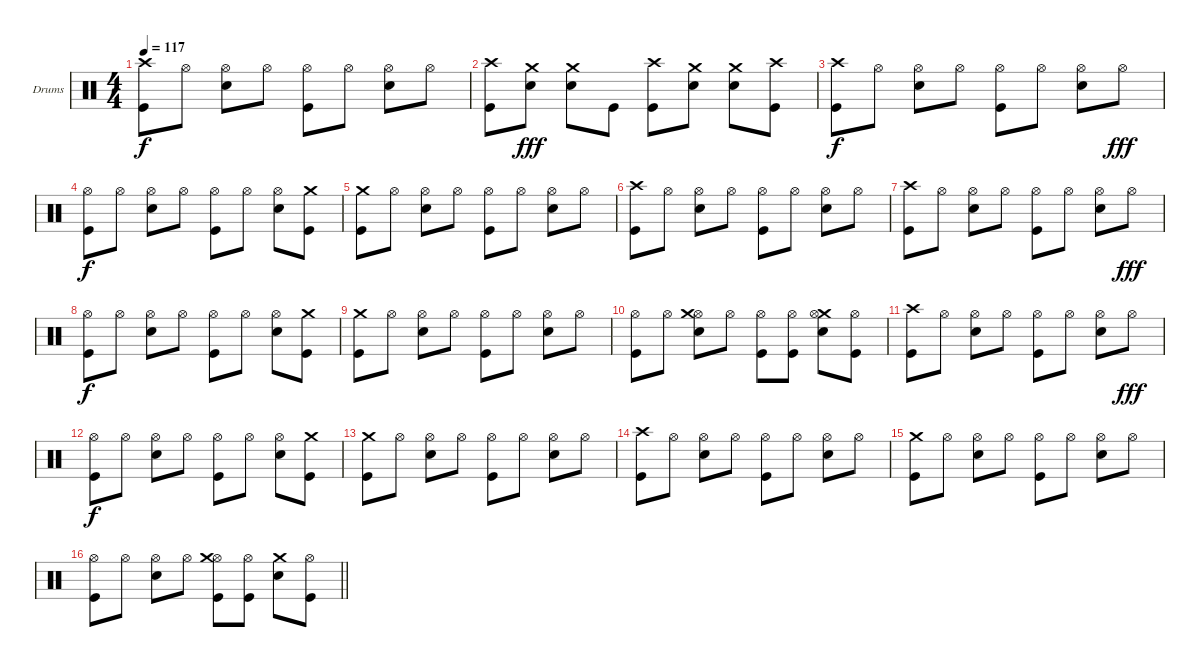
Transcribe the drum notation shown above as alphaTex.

\bracketExtendMode groupsimilarinstruments
\firstSystemTrackNameOrientation horizontal
\otherSystemsTrackNameOrientation horizontal
\track ("Drumkit" "Drums") {instrument percussion}
\staff {score}
\articulation defaults
\ts (4 4)
\tempo 117
\clef neutral
\ks c
("Crash high (hit)" "Kick (hit)").8{dy f} "Hi-Hat (open)".8 ("Hi-Hat (open)" "Snare (hit) 2").8 "Hi-Hat (open)".8 ("Hi-Hat (open)" "Kick (hit)").8 "Hi-Hat (open)".8 ("Hi-Hat (open)" "Snare (hit) 2").8 "Hi-Hat (open)".8 |
("Crash high (hit)" "Kick (hit)").8 ("Crash medium (hit)" "Snare (hit) 2").8{dy fff} ("Crash medium (hit)" "Snare (hit) 2").8 "Kick (hit)".8 ("Crash high (hit)" "Kick (hit)").8 ("Crash medium (hit)" "Snare (hit) 2").8 ("Crash medium (hit)" "Snare (hit) 2").8 ("Crash high (hit)" "Kick (hit)").8 |
("Crash high (hit)" "Kick (hit)").8{dy f} "Hi-Hat (open)".8 ("Hi-Hat (open)" "Snare (hit) 2").8 "Hi-Hat (open)".8 ("Hi-Hat (open)" "Kick (hit)").8 "Hi-Hat (open)".8 ("Hi-Hat (open)" "Snare (hit) 2").8 "Hi-Hat (open)".8{dy fff} |
("Hi-Hat (open)" "Kick (hit)").8{dy f} "Hi-Hat (open)".8 ("Hi-Hat (open)" "Snare (hit) 2").8 "Hi-Hat (open)".8 ("Hi-Hat (open)" "Kick (hit)").8 "Hi-Hat (open)".8 ("Hi-Hat (open)" "Snare (hit) 2").8 ("Crash medium (hit)" "Kick (hit)").8 |
("Crash medium (hit)" "Kick (hit)").8 "Hi-Hat (open)".8 ("Hi-Hat (open)" "Snare (hit) 2").8 "Hi-Hat (open)".8 ("Hi-Hat (open)" "Kick (hit)").8 "Hi-Hat (open)".8 ("Hi-Hat (open)" "Snare (hit) 2").8 "Hi-Hat (open)".8 |
("Crash high (hit)" "Kick (hit)").8 "Hi-Hat (open)".8 ("Hi-Hat (open)" "Snare (hit) 2").8 "Hi-Hat (open)".8 ("Hi-Hat (open)" "Kick (hit)").8 "Hi-Hat (open)".8 ("Hi-Hat (open)" "Snare (hit) 2").8 "Hi-Hat (open)".8 |
("Crash high (hit)" "Kick (hit)").8 "Hi-Hat (open)".8 ("Hi-Hat (open)" "Snare (hit) 2").8 "Hi-Hat (open)".8 ("Hi-Hat (open)" "Kick (hit)").8 "Hi-Hat (open)".8 ("Hi-Hat (open)" "Snare (hit) 2").8 "Hi-Hat (open)".8{dy fff} |
("Hi-Hat (open)" "Kick (hit)").8{dy f} "Hi-Hat (open)".8 ("Hi-Hat (open)" "Snare (hit) 2").8 "Hi-Hat (open)".8 ("Hi-Hat (open)" "Kick (hit)").8 "Hi-Hat (open)".8 ("Hi-Hat (open)" "Snare (hit) 2").8 ("Crash medium (hit)" "Kick (hit)").8 |
("Crash medium (hit)" "Kick (hit)").8 "Hi-Hat (open)".8 ("Hi-Hat (open)" "Snare (hit) 2").8 "Hi-Hat (open)".8 ("Hi-Hat (open)" "Kick (hit)").8 "Hi-Hat (open)".8 ("Hi-Hat (open)" "Snare (hit) 2").8 "Hi-Hat (open)".8 |
("Hi-Hat (open)" "Kick (hit)").8 "Hi-Hat (open)".8 ("Hi-Hat (open)" "Crash medium (hit)" "Snare (hit) 2").8 "Hi-Hat (open)".8 ("Hi-Hat (open)" "Kick (hit)").8 ("Hi-Hat (open)" "Kick (hit)").8 ("Crash medium (hit)" "Hi-Hat (open)" "Snare (hit) 2").8 ("Hi-Hat (open)" "Kick (hit)").8 |
("Crash high (hit)" "Kick (hit)").8 "Hi-Hat (open)".8 ("Hi-Hat (open)" "Snare (hit) 2").8 "Hi-Hat (open)".8 ("Hi-Hat (open)" "Kick (hit)").8 "Hi-Hat (open)".8 ("Hi-Hat (open)" "Snare (hit) 2").8 "Hi-Hat (open)".8{dy fff} |
("Hi-Hat (open)" "Kick (hit)").8{dy f} "Hi-Hat (open)".8 ("Hi-Hat (open)" "Snare (hit) 2").8 "Hi-Hat (open)".8 ("Hi-Hat (open)" "Kick (hit)").8 "Hi-Hat (open)".8 ("Hi-Hat (open)" "Snare (hit) 2").8 ("Crash medium (hit)" "Kick (hit)").8 |
("Crash medium (hit)" "Kick (hit)").8 "Hi-Hat (open)".8 ("Hi-Hat (open)" "Snare (hit) 2").8 "Hi-Hat (open)".8 ("Hi-Hat (open)" "Kick (hit)").8 "Hi-Hat (open)".8 ("Hi-Hat (open)" "Snare (hit) 2").8 "Hi-Hat (open)".8 |
("Crash high (hit)" "Kick (hit)").8 "Hi-Hat (open)".8 ("Hi-Hat (open)" "Snare (hit) 2").8 "Hi-Hat (open)".8 ("Hi-Hat (open)" "Kick (hit)").8 "Hi-Hat (open)".8 ("Hi-Hat (open)" "Snare (hit) 2").8 "Hi-Hat (open)".8 |
("Crash medium (hit)" "Kick (hit)").8 "Hi-Hat (open)".8 ("Hi-Hat (open)" "Snare (hit) 2").8 "Hi-Hat (open)".8 ("Hi-Hat (open)" "Kick (hit)").8 "Hi-Hat (open)".8 ("Hi-Hat (open)" "Snare (hit) 2").8 "Hi-Hat (open)".8 |
\barLineRight lightlight
("Hi-Hat (open)" "Kick (hit)").8 "Hi-Hat (open)".8 ("Hi-Hat (open)" "Snare (hit) 2").8 "Hi-Hat (open)".8 ("Hi-Hat (open)" "Crash medium (hit)" "Kick (hit)").8 ("Hi-Hat (open)" "Kick (hit)").8 ("Crash medium (hit)" "Snare (hit) 2").8 ("Hi-Hat (open)" "Kick (hit)").8
